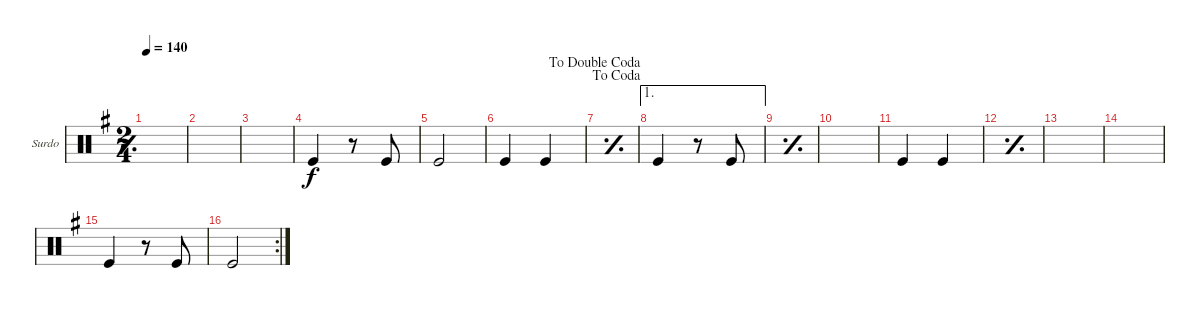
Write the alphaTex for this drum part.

\defaultSystemsLayout 4
\bracketExtendMode groupsimilarinstruments
\firstSystemTrackNameOrientation horizontal
\otherSystemsTrackNameOrientation horizontal
\track ("Surdo" "Surdo") {instrument percussion}
\staff {score}
\articulation defaults
\ts (2 4)
\tempo 140
\clef neutral
\simile simple
\ks g
|
|
|
\simile none "Kick (hit)".4
r.8 "Kick (hit)".8 |
"Kick (hit)".2 |
"Kick (hit)".4 "Kick (hit)".4 |
\jump dacoda
\jump dadoublecoda
\simile simple
|
\ae 1
\simile none "Kick (hit)".4
r.8 "Kick (hit)".8 |
\simile simple
|
|
\simile none "Kick (hit)".4 "Kick (hit)".4
|
\simile simple
|
|
|
\simile none "Kick (hit)".4
r.8 "Kick (hit)".8 |
\rc 2 "Kick (hit)".2
